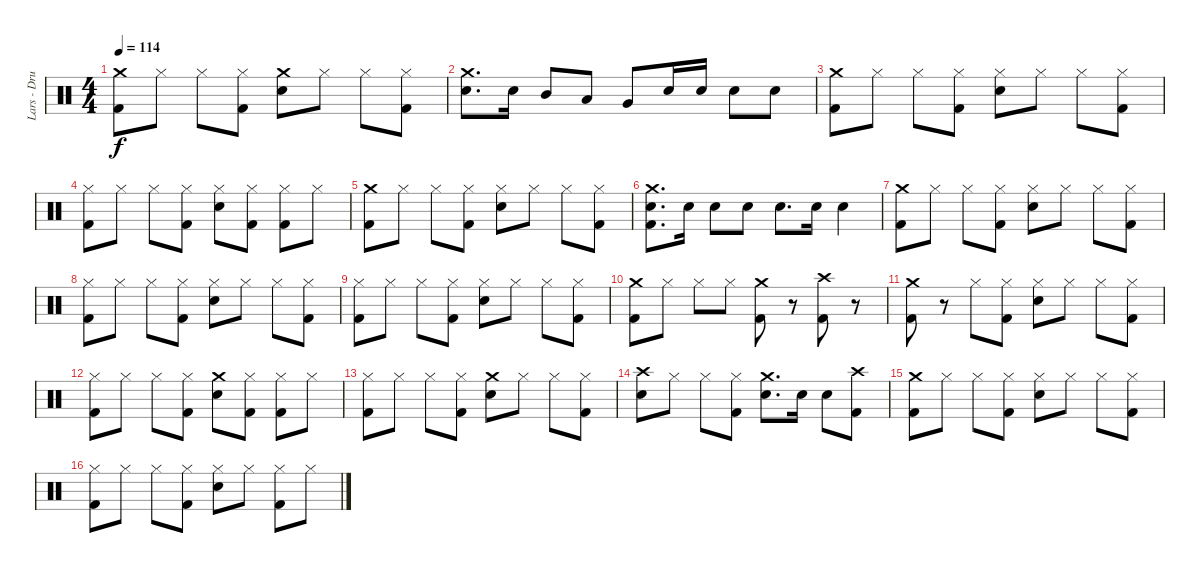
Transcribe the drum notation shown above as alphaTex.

\track ("Lars - Drums" "Lars - Dru") {instrument percussion}
\staff {score}
\articulation defaults
\ts (4 4)
\tempo 114
\clef neutral
\ks c
("Crash medium (hit)" "Kick (hit) 2").8{dy f} "Hi-Hat (closed)".8 "Hi-Hat (closed)".8 ("Hi-Hat (closed)" "Kick (hit) 2").8 ("Crash medium (hit)" "Snare (hit) 2").8 "Hi-Hat (closed)".8 "Hi-Hat (closed)".8 ("Hi-Hat (closed)" "Kick (hit) 2").8 |
("Crash medium (hit)" "Snare (hit) 2").8{d} "Snare (hit) 2".16 "Mid Tom (hit)".8 "Low Tom (hit)".8 "Very Low Tom (hit)".8 "Snare (hit) 2".16 "Snare (hit) 2".16 "Snare (hit) 2".8 "Snare (hit) 2".8 |
("Crash medium (hit)" "Kick (hit) 2").8 "Hi-Hat (closed)".8 "Hi-Hat (closed)".8 ("Hi-Hat (closed)" "Kick (hit) 2").8 ("Hi-Hat (closed)" "Snare (hit) 2").8 "Hi-Hat (closed)".8 "Hi-Hat (closed)".8 ("Hi-Hat (closed)" "Kick (hit) 2").8 |
("Hi-Hat (closed)" "Kick (hit) 2").8 "Hi-Hat (closed)".8 "Hi-Hat (closed)".8 ("Hi-Hat (closed)" "Kick (hit) 2").8 ("Hi-Hat (closed)" "Snare (hit) 2").8 ("Hi-Hat (closed)" "Kick (hit) 2").8 ("Hi-Hat (closed)" "Kick (hit) 2").8 "Hi-Hat (closed)".8 |
("Crash medium (hit)" "Kick (hit) 2").8 "Hi-Hat (closed)".8 "Hi-Hat (closed)".8 ("Hi-Hat (closed)" "Kick (hit) 2").8 ("Hi-Hat (closed)" "Snare (hit) 2").8 "Hi-Hat (closed)".8 "Hi-Hat (closed)".8 ("Hi-Hat (closed)" "Kick (hit) 2").8 |
("Crash medium (hit)" "Kick (hit) 2" "Snare (hit) 2").8{d} "Snare (hit) 2".16 "Snare (hit) 2".8 "Snare (hit) 2".8 "Snare (hit) 2".8{d} "Snare (hit) 2".16 "Snare (hit) 2".4 |
("Crash medium (hit)" "Kick (hit) 2").8 "Hi-Hat (closed)".8 "Hi-Hat (closed)".8 ("Hi-Hat (closed)" "Kick (hit) 2").8 ("Hi-Hat (closed)" "Snare (hit) 2").8 "Hi-Hat (closed)".8 "Hi-Hat (closed)".8 ("Hi-Hat (closed)" "Kick (hit) 2").8 |
("Hi-Hat (closed)" "Kick (hit) 2").8 "Hi-Hat (closed)".8 "Hi-Hat (closed)".8 ("Hi-Hat (closed)" "Kick (hit) 2").8 ("Hi-Hat (closed)" "Snare (hit) 2").8 "Hi-Hat (closed)".8 "Hi-Hat (closed)".8 ("Hi-Hat (closed)" "Kick (hit) 2").8 |
("Hi-Hat (closed)" "Kick (hit) 2").8 "Hi-Hat (closed)".8 "Hi-Hat (closed)".8 ("Hi-Hat (closed)" "Kick (hit) 2").8 ("Hi-Hat (closed)" "Snare (hit) 2").8 "Hi-Hat (closed)".8 "Hi-Hat (closed)".8 ("Hi-Hat (closed)" "Kick (hit) 2").8 |
("Crash medium (hit)" "Kick (hit) 2").8 "Hi-Hat (closed)".8 "Hi-Hat (closed)".8 "Hi-Hat (closed)".8 ("Crash medium (hit)" "Kick (hit) 2").8 r.8 ("Crash high (hit)" "Kick (hit) 2").8 r.8 |
("Crash medium (hit)" "Kick (hit) 2").8 r.8 "Hi-Hat (closed)".8 ("Hi-Hat (closed)" "Kick (hit) 2").8 ("Hi-Hat (closed)" "Snare (hit) 2").8 "Hi-Hat (closed)".8 "Hi-Hat (closed)".8 ("Hi-Hat (closed)" "Kick (hit) 2").8 |
("Hi-Hat (closed)" "Kick (hit) 2").8 "Hi-Hat (closed)".8 "Hi-Hat (closed)".8 ("Hi-Hat (closed)" "Kick (hit) 2").8 ("Crash medium (hit)" "Snare (hit) 2").8 ("Hi-Hat (closed)" "Kick (hit) 2").8 ("Hi-Hat (closed)" "Kick (hit) 2").8 "Hi-Hat (closed)".8 |
("Hi-Hat (closed)" "Kick (hit) 2").8 "Hi-Hat (closed)".8 "Hi-Hat (closed)".8 ("Hi-Hat (closed)" "Kick (hit) 2").8 ("Crash medium (hit)" "Snare (hit) 2").8 "Hi-Hat (closed)".8 "Hi-Hat (closed)".8 ("Hi-Hat (closed)" "Kick (hit) 2").8 |
("Crash high (hit)" "Snare (hit) 2").8 "Hi-Hat (closed)".8 "Hi-Hat (closed)".8 ("Hi-Hat (closed)" "Kick (hit) 2").8 ("Crash medium (hit)" "Snare (hit) 2").8{d} "Snare (hit) 2".16 "Snare (hit) 2".8 ("Crash high (hit)" "Kick (hit) 2").8 |
("Crash medium (hit)" "Kick (hit) 2").8 "Hi-Hat (closed)".8 "Hi-Hat (closed)".8 ("Hi-Hat (closed)" "Kick (hit) 2").8 ("Hi-Hat (closed)" "Snare (hit) 2").8 "Hi-Hat (closed)".8 "Hi-Hat (closed)".8 ("Hi-Hat (closed)" "Kick (hit) 2").8 |
("Hi-Hat (closed)" "Kick (hit) 2").8 "Hi-Hat (closed)".8 "Hi-Hat (closed)".8 ("Hi-Hat (closed)" "Kick (hit) 2").8 ("Hi-Hat (closed)" "Snare (hit) 2").8 "Hi-Hat (closed)".8 ("Hi-Hat (closed)" "Kick (hit) 2").8 "Hi-Hat (closed)".8
